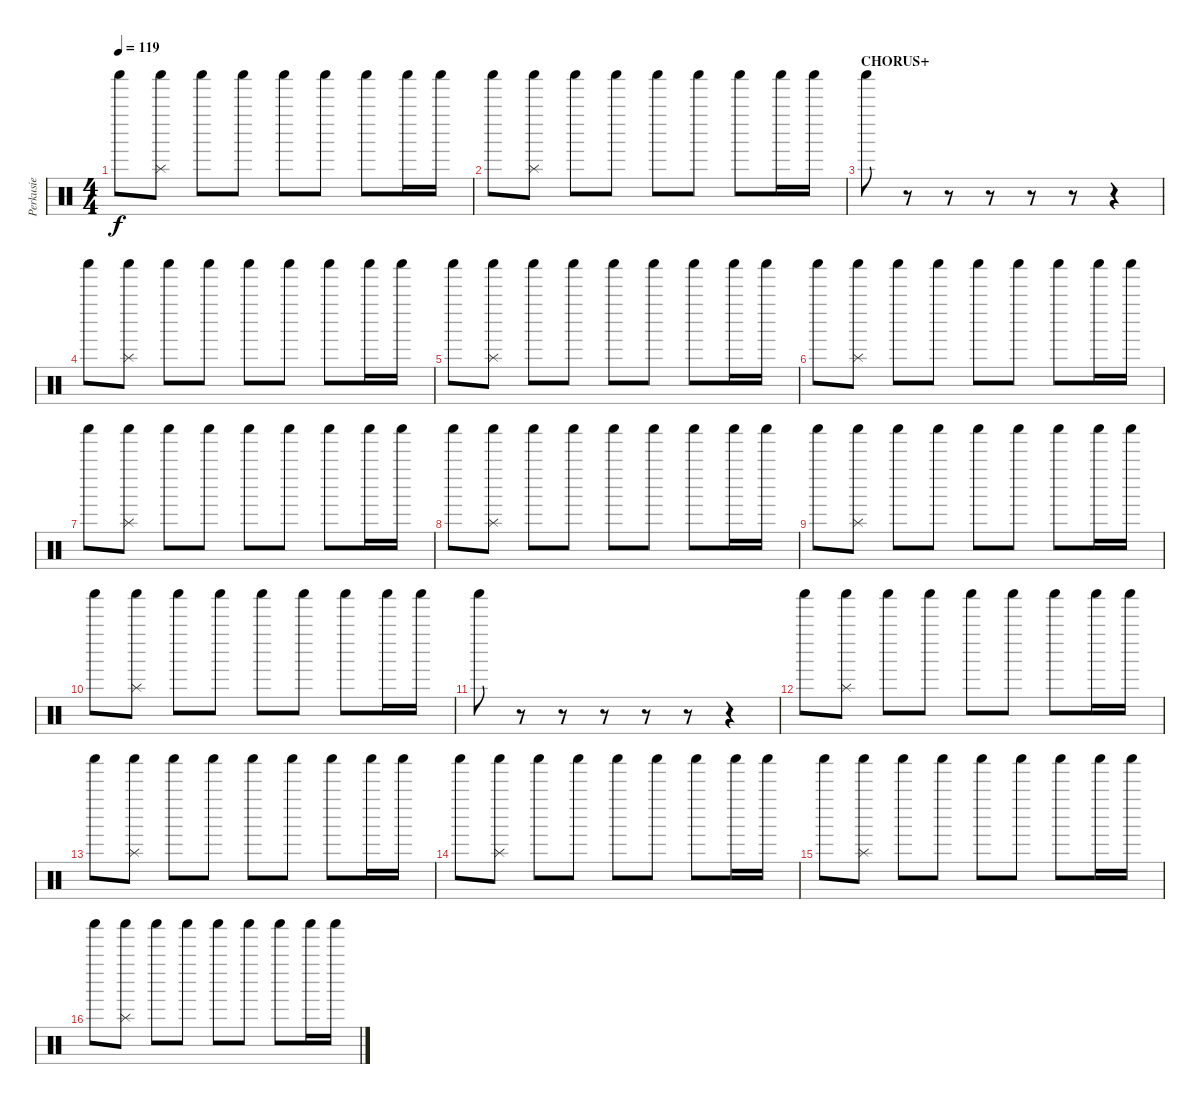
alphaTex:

\track ("Perkusie" "Perkusie") {instrument percussion}
\staff {score}
\articulation defaults
\ts (4 4)
\tempo 119
\clef neutral
\ks c "Shaker (hit)".8{dy f}
("Shaker (hit)" "Splash (hit)").8 "Shaker (hit)".8 "Shaker (hit)".8 "Shaker (hit)".8 "Shaker (hit)".8 "Shaker (hit)".8 "Shaker (hit)".16 "Shaker (hit)".16 |
"Shaker (hit)".8 ("Shaker (hit)" "Splash (hit)").8 "Shaker (hit)".8 "Shaker (hit)".8 "Shaker (hit)".8 "Shaker (hit)".8 "Shaker (hit)".8 "Shaker (hit)".16 "Shaker (hit)".16 |
\section ("" "CHORUS+")
"Shaker (hit)".8 r.8 r.8 r.8 r.8 r.8 r.4 |
"Shaker (hit)".8 ("Shaker (hit)" "Splash (hit)").8 "Shaker (hit)".8 "Shaker (hit)".8 "Shaker (hit)".8 "Shaker (hit)".8 "Shaker (hit)".8 "Shaker (hit)".16 "Shaker (hit)".16 |
"Shaker (hit)".8 ("Shaker (hit)" "Splash (hit)").8 "Shaker (hit)".8 "Shaker (hit)".8 "Shaker (hit)".8 "Shaker (hit)".8 "Shaker (hit)".8 "Shaker (hit)".16 "Shaker (hit)".16 |
"Shaker (hit)".8 ("Shaker (hit)" "Splash (hit)").8 "Shaker (hit)".8 "Shaker (hit)".8 "Shaker (hit)".8 "Shaker (hit)".8 "Shaker (hit)".8 "Shaker (hit)".16 "Shaker (hit)".16 |
"Shaker (hit)".8 ("Shaker (hit)" "Splash (hit)").8 "Shaker (hit)".8 "Shaker (hit)".8 "Shaker (hit)".8 "Shaker (hit)".8 "Shaker (hit)".8 "Shaker (hit)".16 "Shaker (hit)".16 |
"Shaker (hit)".8 ("Shaker (hit)" "Splash (hit)").8 "Shaker (hit)".8 "Shaker (hit)".8 "Shaker (hit)".8 "Shaker (hit)".8 "Shaker (hit)".8 "Shaker (hit)".16 "Shaker (hit)".16 |
"Shaker (hit)".8 ("Shaker (hit)" "Splash (hit)").8 "Shaker (hit)".8 "Shaker (hit)".8 "Shaker (hit)".8 "Shaker (hit)".8 "Shaker (hit)".8 "Shaker (hit)".16 "Shaker (hit)".16 |
"Shaker (hit)".8 ("Shaker (hit)" "Splash (hit)").8 "Shaker (hit)".8 "Shaker (hit)".8 "Shaker (hit)".8 "Shaker (hit)".8 "Shaker (hit)".8 "Shaker (hit)".16 "Shaker (hit)".16 |
"Shaker (hit)".8 r.8 r.8 r.8 r.8 r.8 r.4 |
"Shaker (hit)".8 ("Shaker (hit)" "Splash (hit)").8 "Shaker (hit)".8 "Shaker (hit)".8 "Shaker (hit)".8 "Shaker (hit)".8 "Shaker (hit)".8 "Shaker (hit)".16 "Shaker (hit)".16 |
"Shaker (hit)".8 ("Shaker (hit)" "Splash (hit)").8 "Shaker (hit)".8 "Shaker (hit)".8 "Shaker (hit)".8 "Shaker (hit)".8 "Shaker (hit)".8 "Shaker (hit)".16 "Shaker (hit)".16 |
"Shaker (hit)".8 ("Shaker (hit)" "Splash (hit)").8 "Shaker (hit)".8 "Shaker (hit)".8 "Shaker (hit)".8 "Shaker (hit)".8 "Shaker (hit)".8 "Shaker (hit)".16 "Shaker (hit)".16 |
"Shaker (hit)".8 ("Shaker (hit)" "Splash (hit)").8 "Shaker (hit)".8 "Shaker (hit)".8 "Shaker (hit)".8 "Shaker (hit)".8 "Shaker (hit)".8 "Shaker (hit)".16 "Shaker (hit)".16 |
"Shaker (hit)".8 ("Shaker (hit)" "Splash (hit)").8 "Shaker (hit)".8 "Shaker (hit)".8 "Shaker (hit)".8 "Shaker (hit)".8 "Shaker (hit)".8 "Shaker (hit)".16 "Shaker (hit)".16
